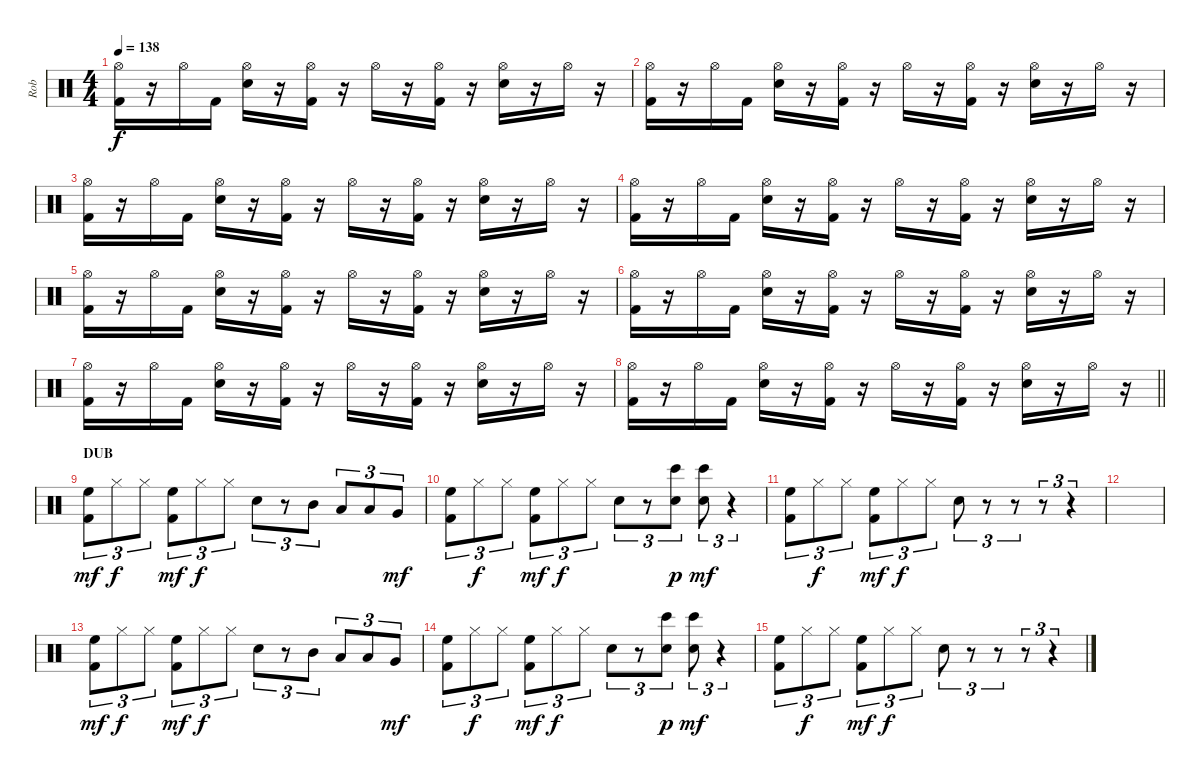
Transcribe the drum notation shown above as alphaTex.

\track ("Rob" "Rob") {instrument percussion}
\staff {score}
\articulation defaults
\ts (4 4)
\tempo 138
\clef neutral
\ks c
("Hi-Hat (open)" "Kick (hit) 2").16{dy f} r.16 "Hi-Hat (open)".16 "Kick (hit) 2".16 ("Hi-Hat (open)" "Electric Snare (hit)").16 r.16 ("Hi-Hat (open)" "Kick (hit) 2").16 r.16 "Hi-Hat (open)".16 r.16 ("Hi-Hat (open)" "Kick (hit) 2").16 r.16 ("Hi-Hat (open)" "Electric Snare (hit)").16 r.16 "Hi-Hat (open)".16 r.16 |
("Hi-Hat (open)" "Kick (hit) 2").16 r.16 "Hi-Hat (open)".16 "Kick (hit) 2".16 ("Hi-Hat (open)" "Electric Snare (hit)").16 r.16 ("Hi-Hat (open)" "Kick (hit) 2").16 r.16 "Hi-Hat (open)".16 r.16 ("Hi-Hat (open)" "Kick (hit) 2").16 r.16 ("Hi-Hat (open)" "Electric Snare (hit)").16 r.16 "Hi-Hat (open)".16 r.16 |
("Hi-Hat (open)" "Kick (hit) 2").16 r.16 "Hi-Hat (open)".16 "Kick (hit) 2".16 ("Hi-Hat (open)" "Electric Snare (hit)").16 r.16 ("Hi-Hat (open)" "Kick (hit) 2").16 r.16 "Hi-Hat (open)".16 r.16 ("Hi-Hat (open)" "Kick (hit) 2").16 r.16 ("Hi-Hat (open)" "Electric Snare (hit)").16 r.16 "Hi-Hat (open)".16 r.16 |
("Hi-Hat (open)" "Kick (hit) 2").16 r.16 "Hi-Hat (open)".16 "Kick (hit) 2".16 ("Hi-Hat (open)" "Electric Snare (hit)").16 r.16 ("Hi-Hat (open)" "Kick (hit) 2").16 r.16 "Hi-Hat (open)".16 r.16 ("Hi-Hat (open)" "Kick (hit) 2").16 r.16 ("Hi-Hat (open)" "Electric Snare (hit)").16 r.16 "Hi-Hat (open)".16 r.16 |
("Hi-Hat (open)" "Kick (hit) 2").16 r.16 "Hi-Hat (open)".16 "Kick (hit) 2".16 ("Hi-Hat (open)" "Electric Snare (hit)").16 r.16 ("Hi-Hat (open)" "Kick (hit) 2").16 r.16 "Hi-Hat (open)".16 r.16 ("Hi-Hat (open)" "Kick (hit) 2").16 r.16 ("Hi-Hat (open)" "Electric Snare (hit)").16 r.16 "Hi-Hat (open)".16 r.16 |
("Hi-Hat (open)" "Kick (hit) 2").16 r.16 "Hi-Hat (open)".16 "Kick (hit) 2".16 ("Hi-Hat (open)" "Electric Snare (hit)").16 r.16 ("Hi-Hat (open)" "Kick (hit) 2").16 r.16 "Hi-Hat (open)".16 r.16 ("Hi-Hat (open)" "Kick (hit) 2").16 r.16 ("Hi-Hat (open)" "Electric Snare (hit)").16 r.16 "Hi-Hat (open)".16 r.16 |
("Hi-Hat (open)" "Kick (hit) 2").16 r.16 "Hi-Hat (open)".16 "Kick (hit) 2".16 ("Hi-Hat (open)" "Electric Snare (hit)").16 r.16 ("Hi-Hat (open)" "Kick (hit) 2").16 r.16 "Hi-Hat (open)".16 r.16 ("Hi-Hat (open)" "Kick (hit) 2").16 r.16 ("Hi-Hat (open)" "Electric Snare (hit)").16 r.16 "Hi-Hat (open)".16 r.16 |
\barLineRight lightlight
("Hi-Hat (open)" "Kick (hit) 2").16 r.16 "Hi-Hat (open)".16 "Kick (hit) 2".16 ("Hi-Hat (open)" "Electric Snare (hit)").16 r.16 ("Hi-Hat (open)" "Kick (hit) 2").16 r.16 "Hi-Hat (open)".16 r.16 ("Hi-Hat (open)" "Kick (hit) 2").16 r.16 ("Hi-Hat (open)" "Electric Snare (hit)").16 r.16 "Hi-Hat (open)".16 r.16 |
\section ("" "DUB")
("High Floor Tom (hit)" "Kick (hit) 2").8{tu (3 2) dy mf} "Hi-Hat (closed)".8{tu (3 2) dy f} "Hi-Hat (closed)".8{tu (3 2)} ("High Floor Tom (hit)" "Kick (hit) 2").8{tu (3 2) dy mf} "Hi-Hat (closed)".8{tu (3 2) dy f} "Hi-Hat (closed)".8{tu (3 2)} "Electric Snare (hit)".8{tu (3 2)} r.8{tu (3 2)} "Mid Tom (hit)".8{tu (3 2)} "Low Tom (hit)".8{tu (3 2)} "Low Tom (hit)".8{tu (3 2)} "Very Low Tom (hit)".8{tu (3 2) dy mf} |
("High Floor Tom (hit)" "Kick (hit) 2").8{tu (3 2)} "Hi-Hat (closed)".8{tu (3 2) dy f} "Hi-Hat (closed)".8{tu (3 2)} ("High Floor Tom (hit)" "Kick (hit) 2").8{tu (3 2) dy mf} "Hi-Hat (closed)".8{tu (3 2) dy f} "Hi-Hat (closed)".8{tu (3 2)} "Electric Snare (hit)".8{tu (3 2)} r.8{tu (3 2)} ("Bongo High (hit)" "Electric Snare (hit)").8{tu (3 2) dy p} ("Bongo High (hit)" "Electric Snare (hit)").8{tu (3 2) dy mf} r.4{tu (3 2)} |
("High Floor Tom (hit)" "Kick (hit) 2").8{tu (3 2)} "Hi-Hat (closed)".8{tu (3 2) dy f} "Hi-Hat (closed)".8{tu (3 2)} ("High Floor Tom (hit)" "Kick (hit) 2").8{tu (3 2) dy mf} "Hi-Hat (closed)".8{tu (3 2) dy f} "Hi-Hat (closed)".8{tu (3 2)} "Electric Snare (hit)".8{tu (3 2)} r.8{tu (3 2)} r.8{tu (3 2)} r.8{tu (3 2)} r.4{tu (3 2)} |
|
("High Floor Tom (hit)" "Kick (hit) 2").8{tu (3 2) dy mf} "Hi-Hat (closed)".8{tu (3 2) dy f} "Hi-Hat (closed)".8{tu (3 2)} ("High Floor Tom (hit)" "Kick (hit) 2").8{tu (3 2) dy mf} "Hi-Hat (closed)".8{tu (3 2) dy f} "Hi-Hat (closed)".8{tu (3 2)} "Electric Snare (hit)".8{tu (3 2)} r.8{tu (3 2)} "Mid Tom (hit)".8{tu (3 2)} "Low Tom (hit)".8{tu (3 2)} "Low Tom (hit)".8{tu (3 2)} "Very Low Tom (hit)".8{tu (3 2) dy mf} |
("High Floor Tom (hit)" "Kick (hit) 2").8{tu (3 2)} "Hi-Hat (closed)".8{tu (3 2) dy f} "Hi-Hat (closed)".8{tu (3 2)} ("High Floor Tom (hit)" "Kick (hit) 2").8{tu (3 2) dy mf} "Hi-Hat (closed)".8{tu (3 2) dy f} "Hi-Hat (closed)".8{tu (3 2)} "Electric Snare (hit)".8{tu (3 2)} r.8{tu (3 2)} ("Bongo High (hit)" "Electric Snare (hit)").8{tu (3 2) dy p} ("Bongo High (hit)" "Electric Snare (hit)").8{tu (3 2) dy mf} r.4{tu (3 2)} |
("High Floor Tom (hit)" "Kick (hit) 2").8{tu (3 2)} "Hi-Hat (closed)".8{tu (3 2) dy f} "Hi-Hat (closed)".8{tu (3 2)} ("High Floor Tom (hit)" "Kick (hit) 2").8{tu (3 2) dy mf} "Hi-Hat (closed)".8{tu (3 2) dy f} "Hi-Hat (closed)".8{tu (3 2)} "Electric Snare (hit)".8{tu (3 2)} r.8{tu (3 2)} r.8{tu (3 2)} r.8{tu (3 2)} r.4{tu (3 2)}
